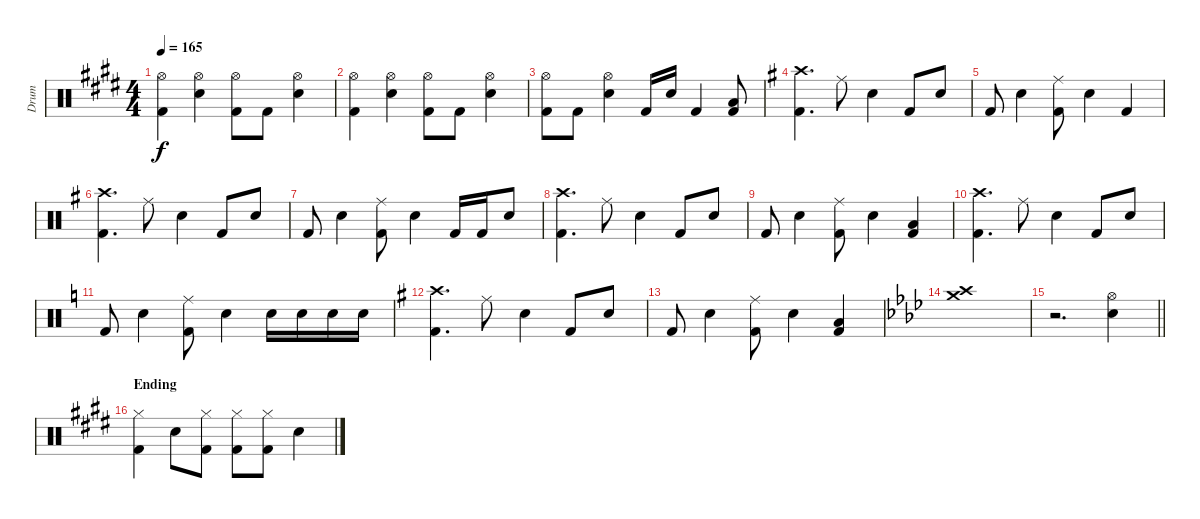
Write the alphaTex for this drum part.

\track ("Drum" "Drum") {instrument percussion}
\staff {score}
\articulation defaults
\ts (4 4)
\tempo 165
\clef neutral
\ks e
("Hi-Hat (open)" "Kick (hit) 2").4{dy f} ("Hi-Hat (open)" "Electric Snare (hit)").4 ("Hi-Hat (open)" "Kick (hit) 2").8 "Kick (hit) 2".8 ("Hi-Hat (open)" "Electric Snare (hit)").4 |
("Hi-Hat (open)" "Kick (hit) 2").4 ("Hi-Hat (open)" "Electric Snare (hit)").4 ("Hi-Hat (open)" "Kick (hit) 2").8 "Kick (hit) 2".8 ("Hi-Hat (open)" "Electric Snare (hit)").4 |
("Hi-Hat (open)" "Kick (hit) 2").8 "Kick (hit) 2".8 ("Hi-Hat (open)" "Electric Snare (hit)").4 "Kick (hit) 2".16 "Electric Snare (hit)".16 "Kick (hit) 2".4 ("Low Floor Tom (hit)" "Kick (hit) 2").8 |
\ks g
("Crash high (hit)" "Kick (hit) 2").4{d} "Ride (middle)".8 "Electric Snare (hit)".4 "Kick (hit) 2".8 "Electric Snare (hit)".8 |
"Kick (hit) 2".8 "Electric Snare (hit)".4 ("Ride (middle)" "Kick (hit) 2").8 "Electric Snare (hit)".4 "Kick (hit) 2".4 |
("Crash high (hit)" "Kick (hit) 2").4{d} "Ride (middle)".8 "Electric Snare (hit)".4 "Kick (hit) 2".8 "Electric Snare (hit)".8 |
"Kick (hit) 2".8 "Electric Snare (hit)".4 ("Ride (middle)" "Kick (hit) 2").8 "Electric Snare (hit)".4 "Kick (hit) 2".16 "Kick (hit) 2".16 "Electric Snare (hit)".8 |
("Crash high (hit)" "Kick (hit) 2").4{d} "Ride (middle)".8 "Electric Snare (hit)".4 "Kick (hit) 2".8 "Electric Snare (hit)".8 |
"Kick (hit) 2".8 "Electric Snare (hit)".4 ("Ride (middle)" "Kick (hit) 2").8 "Electric Snare (hit)".4 ("Low Floor Tom (hit)" "Kick (hit) 2").4 |
("Crash high (hit)" "Kick (hit) 2").4{d} "Ride (middle)".8 "Electric Snare (hit)".4 "Kick (hit) 2".8 "Electric Snare (hit)".8 |
\ks c "Kick (hit) 2".8 "Electric Snare (hit)".4
("Ride (middle)" "Kick (hit) 2").8 "Electric Snare (hit)".4 "Electric Snare (hit)".16 "Electric Snare (hit)".16 "Electric Snare (hit)".16 "Electric Snare (hit)".16 |
\ks g
("Crash high (hit)" "Kick (hit) 2").4{d} "Ride (middle)".8 "Electric Snare (hit)".4 "Kick (hit) 2".8 "Electric Snare (hit)".8 |
"Kick (hit) 2".8 "Electric Snare (hit)".4 ("Ride (middle)" "Kick (hit) 2").8 "Electric Snare (hit)".4 ("Low Floor Tom (hit)" "Kick (hit) 2").4 |
\ks ab
("Crash high (hit)" "Crash medium (hit)").1 |
\barLineRight lightlight
r.2{d} ("Hi-Hat (open)" "Electric Snare (hit)").4 |
\section ("" "Ending")
\ks e
("Hi-Hat (closed)" "Kick (hit) 2").4 "Electric Snare (hit)".8 ("Hi-Hat (closed)" "Kick (hit) 2").8 ("Hi-Hat (closed)" "Kick (hit) 2").8 ("Hi-Hat (closed)" "Kick (hit) 2").8 "Electric Snare (hit)".4
